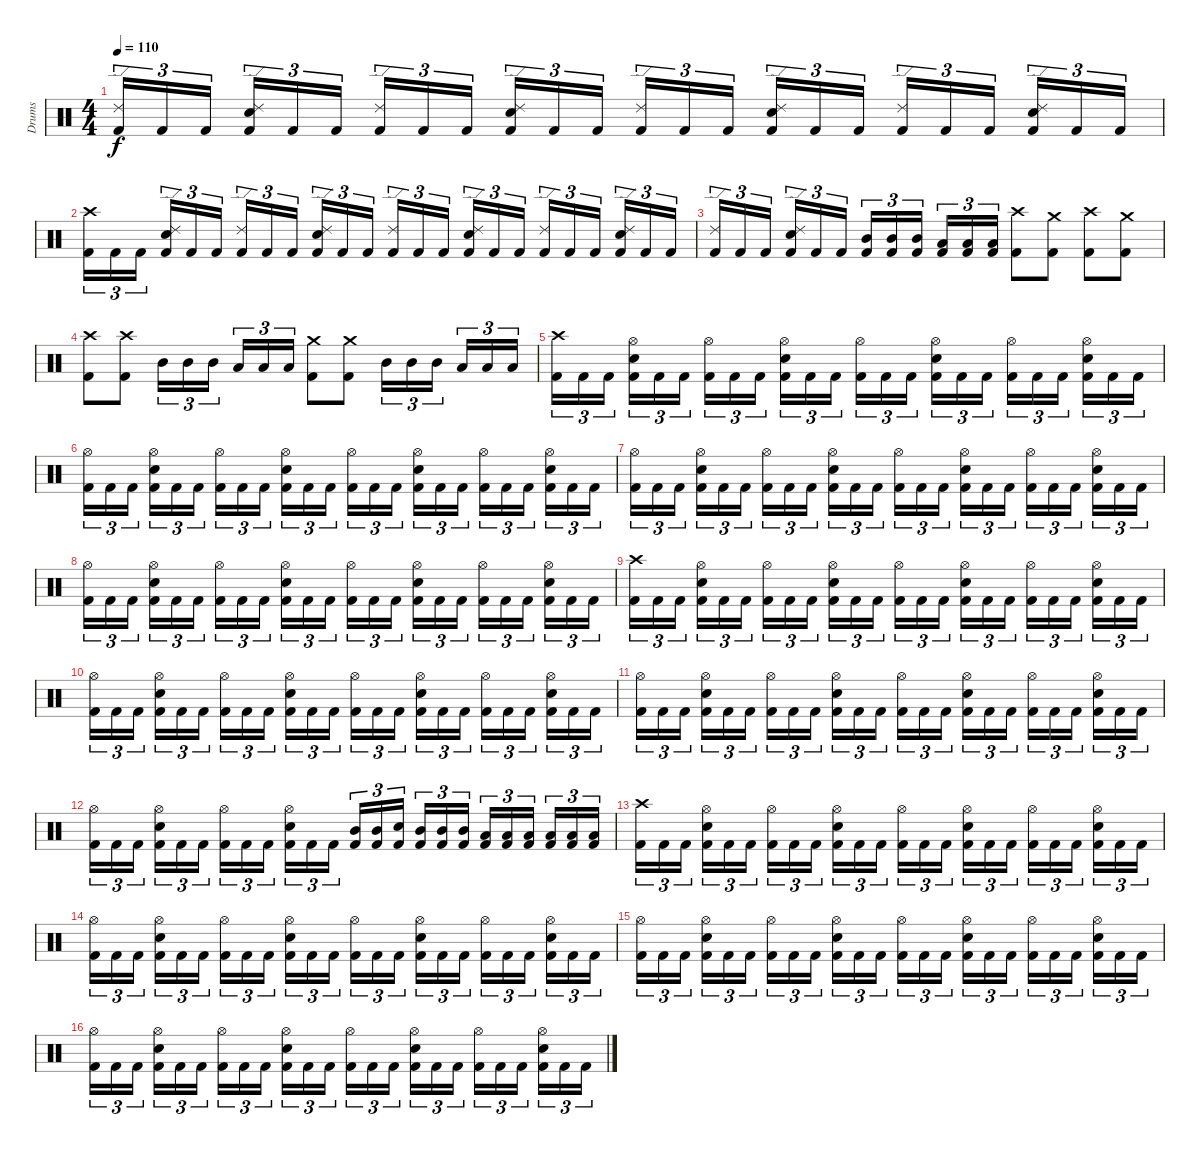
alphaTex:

\track ("Drums" "Drums") {instrument percussion}
\staff {score}
\articulation defaults
\ts (4 4)
\tempo 110
\clef neutral
\ks c
("Kick (hit) 2" "Ride (edge) 2").16{tu (3 2) dy f} "Kick (hit) 2".16{tu (3 2)} "Kick (hit) 2".16{tu (3 2)} ("Kick (hit) 2" "Snare (hit) 2" "Ride (edge) 2").16{tu (3 2)} "Kick (hit) 2".16{tu (3 2)} "Kick (hit) 2".16{tu (3 2)} ("Kick (hit) 2" "Ride (edge) 2").16{tu (3 2)} "Kick (hit) 2".16{tu (3 2)} "Kick (hit) 2".16{tu (3 2)} ("Kick (hit) 2" "Snare (hit) 2" "Ride (edge) 2").16{tu (3 2)} "Kick (hit) 2".16{tu (3 2)} "Kick (hit) 2".16{tu (3 2)} ("Kick (hit) 2" "Ride (edge) 2").16{tu (3 2)} "Kick (hit) 2".16{tu (3 2)} "Kick (hit) 2".16{tu (3 2)} ("Kick (hit) 2" "Snare (hit) 2" "Ride (edge) 2").16{tu (3 2)} "Kick (hit) 2".16{tu (3 2)} "Kick (hit) 2".16{tu (3 2)} ("Kick (hit) 2" "Ride (edge) 2").16{tu (3 2)} "Kick (hit) 2".16{tu (3 2)} "Kick (hit) 2".16{tu (3 2)} ("Kick (hit) 2" "Snare (hit) 2" "Ride (edge) 2").16{tu (3 2)} "Kick (hit) 2".16{tu (3 2)} "Kick (hit) 2".16{tu (3 2)} |
("Kick (hit) 2" "Crash high (hit)").16{tu (3 2)} "Kick (hit) 2".16{tu (3 2)} "Kick (hit) 2".16{tu (3 2)} ("Kick (hit) 2" "Snare (hit) 2" "Ride (edge) 2").16{tu (3 2)} "Kick (hit) 2".16{tu (3 2)} "Kick (hit) 2".16{tu (3 2)} ("Kick (hit) 2" "Ride (edge) 2").16{tu (3 2)} "Kick (hit) 2".16{tu (3 2)} "Kick (hit) 2".16{tu (3 2)} ("Kick (hit) 2" "Snare (hit) 2" "Ride (edge) 2").16{tu (3 2)} "Kick (hit) 2".16{tu (3 2)} "Kick (hit) 2".16{tu (3 2)} ("Kick (hit) 2" "Ride (edge) 2").16{tu (3 2)} "Kick (hit) 2".16{tu (3 2)} "Kick (hit) 2".16{tu (3 2)} ("Kick (hit) 2" "Snare (hit) 2" "Ride (edge) 2").16{tu (3 2)} "Kick (hit) 2".16{tu (3 2)} "Kick (hit) 2".16{tu (3 2)} ("Kick (hit) 2" "Ride (edge) 2").16{tu (3 2)} "Kick (hit) 2".16{tu (3 2)} "Kick (hit) 2".16{tu (3 2)} ("Kick (hit) 2" "Snare (hit) 2" "Ride (edge) 2").16{tu (3 2)} "Kick (hit) 2".16{tu (3 2)} "Kick (hit) 2".16{tu (3 2)} |
("Kick (hit) 2" "Ride (edge) 2").16{tu (3 2)} "Kick (hit) 2".16{tu (3 2)} "Kick (hit) 2".16{tu (3 2)} ("Kick (hit) 2" "Snare (hit) 2" "Ride (edge) 2").16{tu (3 2)} "Kick (hit) 2".16{tu (3 2)} "Kick (hit) 2".16{tu (3 2)} ("Kick (hit) 2" "Mid Tom (hit)").16{tu (3 2)} ("Kick (hit) 2" "Mid Tom (hit)").16{tu (3 2)} ("Kick (hit) 2" "Mid Tom (hit)").16{tu (3 2)} ("Kick (hit) 2" "Low Tom (hit)").16{tu (3 2)} ("Kick (hit) 2" "Low Tom (hit)").16{tu (3 2)} ("Kick (hit) 2" "Low Tom (hit)").16{tu (3 2)} ("Kick (hit) 2" "Crash high (hit)").8 ("Kick (hit) 2" "Crash medium (hit)").8 ("Kick (hit) 2" "Crash high (hit)").8 ("Kick (hit) 2" "Crash medium (hit)").8 |
("Kick (hit) 2" "Crash high (hit)").8 ("Kick (hit) 2" "Crash high (hit)").8 "Mid Tom (hit)".16{tu (3 2)} "Mid Tom (hit)".16{tu (3 2)} "Mid Tom (hit)".16{tu (3 2)} "Low Tom (hit)".16{tu (3 2)} "Low Tom (hit)".16{tu (3 2)} "Low Tom (hit)".16{tu (3 2)} ("Kick (hit) 2" "Crash medium (hit)").8 ("Kick (hit) 2" "Crash medium (hit)").8 "Mid Tom (hit)".16{tu (3 2)} "Mid Tom (hit)".16{tu (3 2)} "Mid Tom (hit)".16{tu (3 2)} "Low Tom (hit)".16{tu (3 2)} "Low Tom (hit)".16{tu (3 2)} "Low Tom (hit)".16{tu (3 2)} |
("Kick (hit) 2" "Crash high (hit)").16{tu (3 2)} "Kick (hit) 2".16{tu (3 2)} "Kick (hit) 2".16{tu (3 2)} ("Kick (hit) 2" "Snare (hit) 2" "Hi-Hat (open)").16{tu (3 2)} "Kick (hit) 2".16{tu (3 2)} "Kick (hit) 2".16{tu (3 2)} ("Kick (hit) 2" "Hi-Hat (open)").16{tu (3 2)} "Kick (hit) 2".16{tu (3 2)} "Kick (hit) 2".16{tu (3 2)} ("Kick (hit) 2" "Snare (hit) 2" "Hi-Hat (open)").16{tu (3 2)} "Kick (hit) 2".16{tu (3 2)} "Kick (hit) 2".16{tu (3 2)} ("Kick (hit) 2" "Hi-Hat (open)").16{tu (3 2)} "Kick (hit) 2".16{tu (3 2)} "Kick (hit) 2".16{tu (3 2)} ("Kick (hit) 2" "Snare (hit) 2" "Hi-Hat (open)").16{tu (3 2)} "Kick (hit) 2".16{tu (3 2)} "Kick (hit) 2".16{tu (3 2)} ("Kick (hit) 2" "Hi-Hat (open)").16{tu (3 2)} "Kick (hit) 2".16{tu (3 2)} "Kick (hit) 2".16{tu (3 2)} ("Kick (hit) 2" "Snare (hit) 2" "Hi-Hat (open)").16{tu (3 2)} "Kick (hit) 2".16{tu (3 2)} "Kick (hit) 2".16{tu (3 2)} |
("Kick (hit) 2" "Hi-Hat (open)").16{tu (3 2)} "Kick (hit) 2".16{tu (3 2)} "Kick (hit) 2".16{tu (3 2)} ("Kick (hit) 2" "Snare (hit) 2" "Hi-Hat (open)").16{tu (3 2)} "Kick (hit) 2".16{tu (3 2)} "Kick (hit) 2".16{tu (3 2)} ("Kick (hit) 2" "Hi-Hat (open)").16{tu (3 2)} "Kick (hit) 2".16{tu (3 2)} "Kick (hit) 2".16{tu (3 2)} ("Kick (hit) 2" "Snare (hit) 2" "Hi-Hat (open)").16{tu (3 2)} "Kick (hit) 2".16{tu (3 2)} "Kick (hit) 2".16{tu (3 2)} ("Kick (hit) 2" "Hi-Hat (open)").16{tu (3 2)} "Kick (hit) 2".16{tu (3 2)} "Kick (hit) 2".16{tu (3 2)} ("Kick (hit) 2" "Snare (hit) 2" "Hi-Hat (open)").16{tu (3 2)} "Kick (hit) 2".16{tu (3 2)} "Kick (hit) 2".16{tu (3 2)} ("Kick (hit) 2" "Hi-Hat (open)").16{tu (3 2)} "Kick (hit) 2".16{tu (3 2)} "Kick (hit) 2".16{tu (3 2)} ("Kick (hit) 2" "Snare (hit) 2" "Hi-Hat (open)").16{tu (3 2)} "Kick (hit) 2".16{tu (3 2)} "Kick (hit) 2".16{tu (3 2)} |
("Kick (hit) 2" "Hi-Hat (open)").16{tu (3 2)} "Kick (hit) 2".16{tu (3 2)} "Kick (hit) 2".16{tu (3 2)} ("Kick (hit) 2" "Snare (hit) 2" "Hi-Hat (open)").16{tu (3 2)} "Kick (hit) 2".16{tu (3 2)} "Kick (hit) 2".16{tu (3 2)} ("Kick (hit) 2" "Hi-Hat (open)").16{tu (3 2)} "Kick (hit) 2".16{tu (3 2)} "Kick (hit) 2".16{tu (3 2)} ("Kick (hit) 2" "Snare (hit) 2" "Hi-Hat (open)").16{tu (3 2)} "Kick (hit) 2".16{tu (3 2)} "Kick (hit) 2".16{tu (3 2)} ("Kick (hit) 2" "Hi-Hat (open)").16{tu (3 2)} "Kick (hit) 2".16{tu (3 2)} "Kick (hit) 2".16{tu (3 2)} ("Kick (hit) 2" "Snare (hit) 2" "Hi-Hat (open)").16{tu (3 2)} "Kick (hit) 2".16{tu (3 2)} "Kick (hit) 2".16{tu (3 2)} ("Kick (hit) 2" "Hi-Hat (open)").16{tu (3 2)} "Kick (hit) 2".16{tu (3 2)} "Kick (hit) 2".16{tu (3 2)} ("Kick (hit) 2" "Snare (hit) 2" "Hi-Hat (open)").16{tu (3 2)} "Kick (hit) 2".16{tu (3 2)} "Kick (hit) 2".16{tu (3 2)} |
("Kick (hit) 2" "Hi-Hat (open)").16{tu (3 2)} "Kick (hit) 2".16{tu (3 2)} "Kick (hit) 2".16{tu (3 2)} ("Kick (hit) 2" "Snare (hit) 2" "Hi-Hat (open)").16{tu (3 2)} "Kick (hit) 2".16{tu (3 2)} "Kick (hit) 2".16{tu (3 2)} ("Kick (hit) 2" "Hi-Hat (open)").16{tu (3 2)} "Kick (hit) 2".16{tu (3 2)} "Kick (hit) 2".16{tu (3 2)} ("Kick (hit) 2" "Snare (hit) 2" "Hi-Hat (open)").16{tu (3 2)} "Kick (hit) 2".16{tu (3 2)} "Kick (hit) 2".16{tu (3 2)} ("Kick (hit) 2" "Hi-Hat (open)").16{tu (3 2)} "Kick (hit) 2".16{tu (3 2)} "Kick (hit) 2".16{tu (3 2)} ("Kick (hit) 2" "Snare (hit) 2" "Hi-Hat (open)").16{tu (3 2)} "Kick (hit) 2".16{tu (3 2)} "Kick (hit) 2".16{tu (3 2)} ("Kick (hit) 2" "Hi-Hat (open)").16{tu (3 2)} "Kick (hit) 2".16{tu (3 2)} "Kick (hit) 2".16{tu (3 2)} ("Kick (hit) 2" "Snare (hit) 2" "Hi-Hat (open)").16{tu (3 2)} "Kick (hit) 2".16{tu (3 2)} "Kick (hit) 2".16{tu (3 2)} |
("Kick (hit) 2" "Crash high (hit)").16{tu (3 2)} "Kick (hit) 2".16{tu (3 2)} "Kick (hit) 2".16{tu (3 2)} ("Kick (hit) 2" "Snare (hit) 2" "Hi-Hat (open)").16{tu (3 2)} "Kick (hit) 2".16{tu (3 2)} "Kick (hit) 2".16{tu (3 2)} ("Kick (hit) 2" "Hi-Hat (open)").16{tu (3 2)} "Kick (hit) 2".16{tu (3 2)} "Kick (hit) 2".16{tu (3 2)} ("Kick (hit) 2" "Snare (hit) 2" "Hi-Hat (open)").16{tu (3 2)} "Kick (hit) 2".16{tu (3 2)} "Kick (hit) 2".16{tu (3 2)} ("Kick (hit) 2" "Hi-Hat (open)").16{tu (3 2)} "Kick (hit) 2".16{tu (3 2)} "Kick (hit) 2".16{tu (3 2)} ("Kick (hit) 2" "Snare (hit) 2" "Hi-Hat (open)").16{tu (3 2)} "Kick (hit) 2".16{tu (3 2)} "Kick (hit) 2".16{tu (3 2)} ("Kick (hit) 2" "Hi-Hat (open)").16{tu (3 2)} "Kick (hit) 2".16{tu (3 2)} "Kick (hit) 2".16{tu (3 2)} ("Kick (hit) 2" "Snare (hit) 2" "Hi-Hat (open)").16{tu (3 2)} "Kick (hit) 2".16{tu (3 2)} "Kick (hit) 2".16{tu (3 2)} |
("Kick (hit) 2" "Hi-Hat (open)").16{tu (3 2)} "Kick (hit) 2".16{tu (3 2)} "Kick (hit) 2".16{tu (3 2)} ("Kick (hit) 2" "Snare (hit) 2" "Hi-Hat (open)").16{tu (3 2)} "Kick (hit) 2".16{tu (3 2)} "Kick (hit) 2".16{tu (3 2)} ("Kick (hit) 2" "Hi-Hat (open)").16{tu (3 2)} "Kick (hit) 2".16{tu (3 2)} "Kick (hit) 2".16{tu (3 2)} ("Kick (hit) 2" "Snare (hit) 2" "Hi-Hat (open)").16{tu (3 2)} "Kick (hit) 2".16{tu (3 2)} "Kick (hit) 2".16{tu (3 2)} ("Kick (hit) 2" "Hi-Hat (open)").16{tu (3 2)} "Kick (hit) 2".16{tu (3 2)} "Kick (hit) 2".16{tu (3 2)} ("Kick (hit) 2" "Snare (hit) 2" "Hi-Hat (open)").16{tu (3 2)} "Kick (hit) 2".16{tu (3 2)} "Kick (hit) 2".16{tu (3 2)} ("Kick (hit) 2" "Hi-Hat (open)").16{tu (3 2)} "Kick (hit) 2".16{tu (3 2)} "Kick (hit) 2".16{tu (3 2)} ("Kick (hit) 2" "Snare (hit) 2" "Hi-Hat (open)").16{tu (3 2)} "Kick (hit) 2".16{tu (3 2)} "Kick (hit) 2".16{tu (3 2)} |
("Kick (hit) 2" "Hi-Hat (open)").16{tu (3 2)} "Kick (hit) 2".16{tu (3 2)} "Kick (hit) 2".16{tu (3 2)} ("Kick (hit) 2" "Snare (hit) 2" "Hi-Hat (open)").16{tu (3 2)} "Kick (hit) 2".16{tu (3 2)} "Kick (hit) 2".16{tu (3 2)} ("Kick (hit) 2" "Hi-Hat (open)").16{tu (3 2)} "Kick (hit) 2".16{tu (3 2)} "Kick (hit) 2".16{tu (3 2)} ("Kick (hit) 2" "Snare (hit) 2" "Hi-Hat (open)").16{tu (3 2)} "Kick (hit) 2".16{tu (3 2)} "Kick (hit) 2".16{tu (3 2)} ("Kick (hit) 2" "Hi-Hat (open)").16{tu (3 2)} "Kick (hit) 2".16{tu (3 2)} "Kick (hit) 2".16{tu (3 2)} ("Kick (hit) 2" "Snare (hit) 2" "Hi-Hat (open)").16{tu (3 2)} "Kick (hit) 2".16{tu (3 2)} "Kick (hit) 2".16{tu (3 2)} ("Kick (hit) 2" "Hi-Hat (open)").16{tu (3 2)} "Kick (hit) 2".16{tu (3 2)} "Kick (hit) 2".16{tu (3 2)} ("Kick (hit) 2" "Snare (hit) 2" "Hi-Hat (open)").16{tu (3 2)} "Kick (hit) 2".16{tu (3 2)} "Kick (hit) 2".16{tu (3 2)} |
("Kick (hit) 2" "Hi-Hat (open)").16{tu (3 2)} "Kick (hit) 2".16{tu (3 2)} "Kick (hit) 2".16{tu (3 2)} ("Kick (hit) 2" "Snare (hit) 2" "Hi-Hat (open)").16{tu (3 2)} "Kick (hit) 2".16{tu (3 2)} "Kick (hit) 2".16{tu (3 2)} ("Kick (hit) 2" "Hi-Hat (open)").16{tu (3 2)} "Kick (hit) 2".16{tu (3 2)} "Kick (hit) 2".16{tu (3 2)} ("Kick (hit) 2" "Snare (hit) 2" "Hi-Hat (open)").16{tu (3 2)} "Kick (hit) 2".16{tu (3 2)} "Kick (hit) 2".16{tu (3 2)} ("Kick (hit) 2" "Mid Tom (hit)").16{tu (3 2)} ("Kick (hit) 2" "Mid Tom (hit)").16{tu (3 2)} ("Kick (hit) 2" "Snare (hit) 2").16{tu (3 2)} ("Kick (hit) 2" "Mid Tom (hit)").16{tu (3 2)} ("Kick (hit) 2" "Mid Tom (hit)").16{tu (3 2)} ("Kick (hit) 2" "Mid Tom (hit)").16{tu (3 2)} ("Kick (hit) 2" "Low Tom (hit)").16{tu (3 2)} ("Kick (hit) 2" "Low Tom (hit)").16{tu (3 2)} ("Kick (hit) 2" "Low Tom (hit)").16{tu (3 2)} ("Kick (hit) 2" "Low Tom (hit)").16{tu (3 2)} ("Kick (hit) 2" "Low Tom (hit)").16{tu (3 2)} ("Kick (hit) 2" "Low Tom (hit)").16{tu (3 2)} |
("Kick (hit) 2" "Crash high (hit)").16{tu (3 2)} "Kick (hit) 2".16{tu (3 2)} "Kick (hit) 2".16{tu (3 2)} ("Kick (hit) 2" "Snare (hit) 2" "Hi-Hat (open)").16{tu (3 2)} "Kick (hit) 2".16{tu (3 2)} "Kick (hit) 2".16{tu (3 2)} ("Kick (hit) 2" "Hi-Hat (open)").16{tu (3 2)} "Kick (hit) 2".16{tu (3 2)} "Kick (hit) 2".16{tu (3 2)} ("Kick (hit) 2" "Snare (hit) 2" "Hi-Hat (open)").16{tu (3 2)} "Kick (hit) 2".16{tu (3 2)} "Kick (hit) 2".16{tu (3 2)} ("Kick (hit) 2" "Hi-Hat (open)").16{tu (3 2)} "Kick (hit) 2".16{tu (3 2)} "Kick (hit) 2".16{tu (3 2)} ("Kick (hit) 2" "Snare (hit) 2" "Hi-Hat (open)").16{tu (3 2)} "Kick (hit) 2".16{tu (3 2)} "Kick (hit) 2".16{tu (3 2)} ("Kick (hit) 2" "Hi-Hat (open)").16{tu (3 2)} "Kick (hit) 2".16{tu (3 2)} "Kick (hit) 2".16{tu (3 2)} ("Kick (hit) 2" "Snare (hit) 2" "Hi-Hat (open)").16{tu (3 2)} "Kick (hit) 2".16{tu (3 2)} "Kick (hit) 2".16{tu (3 2)} |
("Kick (hit) 2" "Hi-Hat (open)").16{tu (3 2)} "Kick (hit) 2".16{tu (3 2)} "Kick (hit) 2".16{tu (3 2)} ("Kick (hit) 2" "Snare (hit) 2" "Hi-Hat (open)").16{tu (3 2)} "Kick (hit) 2".16{tu (3 2)} "Kick (hit) 2".16{tu (3 2)} ("Kick (hit) 2" "Hi-Hat (open)").16{tu (3 2)} "Kick (hit) 2".16{tu (3 2)} "Kick (hit) 2".16{tu (3 2)} ("Kick (hit) 2" "Snare (hit) 2" "Hi-Hat (open)").16{tu (3 2)} "Kick (hit) 2".16{tu (3 2)} "Kick (hit) 2".16{tu (3 2)} ("Kick (hit) 2" "Hi-Hat (open)").16{tu (3 2)} "Kick (hit) 2".16{tu (3 2)} "Kick (hit) 2".16{tu (3 2)} ("Kick (hit) 2" "Snare (hit) 2" "Hi-Hat (open)").16{tu (3 2)} "Kick (hit) 2".16{tu (3 2)} "Kick (hit) 2".16{tu (3 2)} ("Kick (hit) 2" "Hi-Hat (open)").16{tu (3 2)} "Kick (hit) 2".16{tu (3 2)} "Kick (hit) 2".16{tu (3 2)} ("Kick (hit) 2" "Snare (hit) 2" "Hi-Hat (open)").16{tu (3 2)} "Kick (hit) 2".16{tu (3 2)} "Kick (hit) 2".16{tu (3 2)} |
("Kick (hit) 2" "Hi-Hat (open)").16{tu (3 2)} "Kick (hit) 2".16{tu (3 2)} "Kick (hit) 2".16{tu (3 2)} ("Kick (hit) 2" "Snare (hit) 2" "Hi-Hat (open)").16{tu (3 2)} "Kick (hit) 2".16{tu (3 2)} "Kick (hit) 2".16{tu (3 2)} ("Kick (hit) 2" "Hi-Hat (open)").16{tu (3 2)} "Kick (hit) 2".16{tu (3 2)} "Kick (hit) 2".16{tu (3 2)} ("Kick (hit) 2" "Snare (hit) 2" "Hi-Hat (open)").16{tu (3 2)} "Kick (hit) 2".16{tu (3 2)} "Kick (hit) 2".16{tu (3 2)} ("Kick (hit) 2" "Hi-Hat (open)").16{tu (3 2)} "Kick (hit) 2".16{tu (3 2)} "Kick (hit) 2".16{tu (3 2)} ("Kick (hit) 2" "Snare (hit) 2" "Hi-Hat (open)").16{tu (3 2)} "Kick (hit) 2".16{tu (3 2)} "Kick (hit) 2".16{tu (3 2)} ("Kick (hit) 2" "Hi-Hat (open)").16{tu (3 2)} "Kick (hit) 2".16{tu (3 2)} "Kick (hit) 2".16{tu (3 2)} ("Kick (hit) 2" "Snare (hit) 2" "Hi-Hat (open)").16{tu (3 2)} "Kick (hit) 2".16{tu (3 2)} "Kick (hit) 2".16{tu (3 2)} |
("Kick (hit) 2" "Hi-Hat (open)").16{tu (3 2)} "Kick (hit) 2".16{tu (3 2)} "Kick (hit) 2".16{tu (3 2)} ("Kick (hit) 2" "Snare (hit) 2" "Hi-Hat (open)").16{tu (3 2)} "Kick (hit) 2".16{tu (3 2)} "Kick (hit) 2".16{tu (3 2)} ("Kick (hit) 2" "Hi-Hat (open)").16{tu (3 2)} "Kick (hit) 2".16{tu (3 2)} "Kick (hit) 2".16{tu (3 2)} ("Kick (hit) 2" "Snare (hit) 2" "Hi-Hat (open)").16{tu (3 2)} "Kick (hit) 2".16{tu (3 2)} "Kick (hit) 2".16{tu (3 2)} ("Kick (hit) 2" "Hi-Hat (open)").16{tu (3 2)} "Kick (hit) 2".16{tu (3 2)} "Kick (hit) 2".16{tu (3 2)} ("Kick (hit) 2" "Snare (hit) 2" "Hi-Hat (open)").16{tu (3 2)} "Kick (hit) 2".16{tu (3 2)} "Kick (hit) 2".16{tu (3 2)} ("Kick (hit) 2" "Hi-Hat (open)").16{tu (3 2)} "Kick (hit) 2".16{tu (3 2)} "Kick (hit) 2".16{tu (3 2)} ("Kick (hit) 2" "Snare (hit) 2" "Hi-Hat (open)").16{tu (3 2)} "Kick (hit) 2".16{tu (3 2)} "Kick (hit) 2".16{tu (3 2)}
